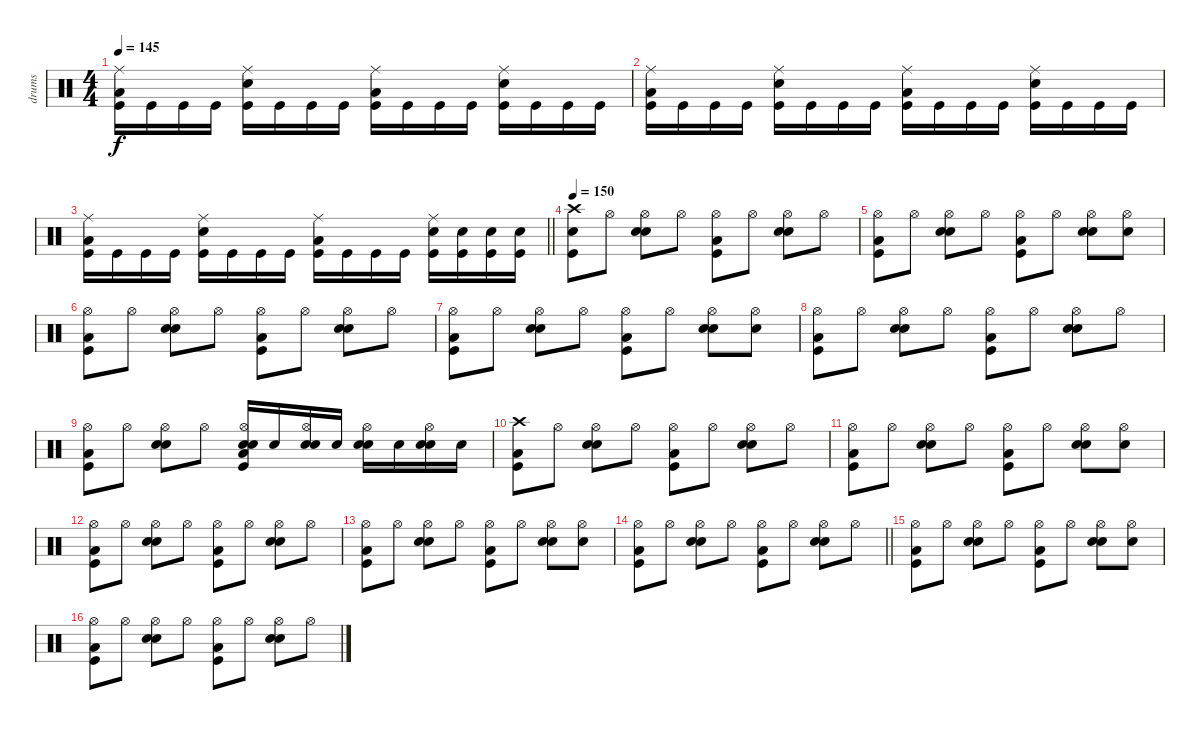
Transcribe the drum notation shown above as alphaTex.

\track ("drums" "drums") {instrument percussion}
\staff {score}
\articulation defaults
\ts (4 4)
\tempo 145
\clef neutral
\ks c
("Ride (middle)" "Low Tom (hit)" "Kick (hit)").16{dy f} "Kick (hit)".16 "Kick (hit)".16 "Kick (hit)".16 ("Ride (middle)" "Snare (hit) 2" "Kick (hit)").16 "Kick (hit)".16 "Kick (hit)".16 "Kick (hit)".16 ("Ride (middle)" "Low Tom (hit)" "Kick (hit)").16 "Kick (hit)".16 "Kick (hit)".16 "Kick (hit)".16 ("Ride (middle)" "Snare (hit) 2" "Kick (hit)").16 "Kick (hit)".16 "Kick (hit)".16 "Kick (hit)".16 |
("Ride (middle)" "Low Tom (hit)" "Kick (hit)").16 "Kick (hit)".16 "Kick (hit)".16 "Kick (hit)".16 ("Ride (middle)" "Snare (hit) 2" "Kick (hit)").16 "Kick (hit)".16 "Kick (hit)".16 "Kick (hit)".16 ("Ride (middle)" "Low Tom (hit)" "Kick (hit)").16 "Kick (hit)".16 "Kick (hit)".16 "Kick (hit)".16 ("Ride (middle)" "Snare (hit) 2" "Kick (hit)").16 "Kick (hit)".16 "Kick (hit)".16 "Kick (hit)".16 |
\barLineRight lightlight
("Ride (middle)" "Low Tom (hit)" "Kick (hit)").16 "Kick (hit)".16 "Kick (hit)".16 "Kick (hit)".16 ("Ride (middle)" "Snare (hit) 2" "Kick (hit)").16 "Kick (hit)".16 "Kick (hit)".16 "Kick (hit)".16 ("Ride (middle)" "Low Tom (hit)" "Kick (hit)").16 "Kick (hit)".16 "Kick (hit)".16 "Kick (hit)".16 ("Ride (middle)" "Snare (hit) 2" "Kick (hit)").16 ("Snare (hit) 2" "Kick (hit)").16 ("Snare (hit) 2" "Kick (hit)").16 ("Snare (hit) 2" "Kick (hit)").16 |
\section ("" "")
\tempo 150
("Crash high (hit)" "Snare (hit) 2" "Kick (hit)").8{volume 6} "Hi-Hat (open)".8 ("Hi-Hat (open)" "Electric Snare (hit)" "Snare (hit) 2").8 "Hi-Hat (open)".8 ("Hi-Hat (open)" "Low Floor Tom (hit)" "Kick (hit)").8 "Hi-Hat (open)".8 ("Hi-Hat (open)" "Electric Snare (hit)" "Snare (hit) 2").8 "Hi-Hat (open)".8 |
("Hi-Hat (open)" "Low Floor Tom (hit)" "Kick (hit)").8 "Hi-Hat (open)".8 ("Hi-Hat (open)" "Electric Snare (hit)" "Snare (hit) 2").8 "Hi-Hat (open)".8 ("Hi-Hat (open)" "Low Floor Tom (hit)" "Kick (hit)").8 "Hi-Hat (open)".8 ("Hi-Hat (open)" "Electric Snare (hit)" "Snare (hit) 2").8 ("Hi-Hat (open)" "Electric Snare (hit)").8 |
("Hi-Hat (open)" "Low Floor Tom (hit)" "Kick (hit)").8 "Hi-Hat (open)".8 ("Hi-Hat (open)" "Electric Snare (hit)" "Snare (hit) 2").8 "Hi-Hat (open)".8 ("Hi-Hat (open)" "Low Floor Tom (hit)" "Kick (hit)").8 "Hi-Hat (open)".8 ("Hi-Hat (open)" "Electric Snare (hit)" "Snare (hit) 2").8 "Hi-Hat (open)".8 |
("Hi-Hat (open)" "Low Floor Tom (hit)" "Kick (hit)").8 "Hi-Hat (open)".8 ("Hi-Hat (open)" "Electric Snare (hit)" "Snare (hit) 2").8 "Hi-Hat (open)".8 ("Hi-Hat (open)" "Low Floor Tom (hit)" "Kick (hit)").8 "Hi-Hat (open)".8 ("Hi-Hat (open)" "Electric Snare (hit)" "Snare (hit) 2").8 ("Hi-Hat (open)" "Electric Snare (hit)").8 |
("Hi-Hat (open)" "Low Floor Tom (hit)" "Kick (hit)").8 "Hi-Hat (open)".8 ("Hi-Hat (open)" "Electric Snare (hit)" "Snare (hit) 2").8 "Hi-Hat (open)".8 ("Hi-Hat (open)" "Low Floor Tom (hit)" "Kick (hit)").8 "Hi-Hat (open)".8 ("Hi-Hat (open)" "Electric Snare (hit)" "Snare (hit) 2").8 "Hi-Hat (open)".8 |
("Hi-Hat (open)" "Low Floor Tom (hit)" "Kick (hit)").8 "Hi-Hat (open)".8 ("Hi-Hat (open)" "Electric Snare (hit)" "Snare (hit) 2").8 "Hi-Hat (open)".8 ("Hi-Hat (open)" "Electric Snare (hit)" "Snare (hit) 2" "Low Floor Tom (hit)" "Kick (hit)").16 "Snare (hit) 2".16 ("Hi-Hat (open)" "Electric Snare (hit)" "Snare (hit) 2").16 "Snare (hit) 2".16 ("Hi-Hat (open)" "Electric Snare (hit)" "Snare (hit) 2").16 "Snare (hit) 2".16 ("Hi-Hat (open)" "Electric Snare (hit)" "Snare (hit) 2").16 "Snare (hit) 2".16 |
("Crash high (hit)" "Low Floor Tom (hit)" "Kick (hit)").8 "Hi-Hat (open)".8 ("Hi-Hat (open)" "Electric Snare (hit)" "Snare (hit) 2").8 "Hi-Hat (open)".8 ("Hi-Hat (open)" "Low Floor Tom (hit)" "Kick (hit)").8 "Hi-Hat (open)".8 ("Hi-Hat (open)" "Electric Snare (hit)" "Snare (hit) 2").8 "Hi-Hat (open)".8 |
("Hi-Hat (open)" "Low Floor Tom (hit)" "Kick (hit)").8 "Hi-Hat (open)".8 ("Hi-Hat (open)" "Electric Snare (hit)" "Snare (hit) 2").8 "Hi-Hat (open)".8 ("Hi-Hat (open)" "Low Floor Tom (hit)" "Kick (hit)").8 "Hi-Hat (open)".8 ("Hi-Hat (open)" "Electric Snare (hit)" "Snare (hit) 2").8 ("Hi-Hat (open)" "Electric Snare (hit)").8 |
("Hi-Hat (open)" "Low Floor Tom (hit)" "Kick (hit)").8 "Hi-Hat (open)".8 ("Hi-Hat (open)" "Electric Snare (hit)" "Snare (hit) 2").8 "Hi-Hat (open)".8 ("Hi-Hat (open)" "Low Floor Tom (hit)" "Kick (hit)").8 "Hi-Hat (open)".8 ("Hi-Hat (open)" "Electric Snare (hit)" "Snare (hit) 2").8 "Hi-Hat (open)".8 |
("Hi-Hat (open)" "Low Floor Tom (hit)" "Kick (hit)").8{volume 3} "Hi-Hat (open)".8 ("Hi-Hat (open)" "Electric Snare (hit)" "Snare (hit) 2").8 "Hi-Hat (open)".8 ("Hi-Hat (open)" "Low Floor Tom (hit)" "Kick (hit)").8 "Hi-Hat (open)".8 ("Hi-Hat (open)" "Electric Snare (hit)" "Snare (hit) 2").8 ("Hi-Hat (open)" "Electric Snare (hit)").8 |
\barLineRight lightlight
("Hi-Hat (open)" "Low Floor Tom (hit)" "Kick (hit)").8 "Hi-Hat (open)".8 ("Hi-Hat (open)" "Electric Snare (hit)" "Snare (hit) 2").8 "Hi-Hat (open)".8 ("Hi-Hat (open)" "Low Floor Tom (hit)" "Kick (hit)").8 "Hi-Hat (open)".8 ("Hi-Hat (open)" "Electric Snare (hit)" "Snare (hit) 2").8 "Hi-Hat (open)".8 |
("Hi-Hat (open)" "Low Floor Tom (hit)" "Kick (hit)").8 "Hi-Hat (open)".8 ("Hi-Hat (open)" "Electric Snare (hit)" "Snare (hit) 2").8 "Hi-Hat (open)".8 ("Hi-Hat (open)" "Low Floor Tom (hit)" "Kick (hit)").8 "Hi-Hat (open)".8 ("Hi-Hat (open)" "Electric Snare (hit)" "Snare (hit) 2").8 ("Hi-Hat (open)" "Electric Snare (hit)").8 |
("Hi-Hat (open)" "Low Floor Tom (hit)" "Kick (hit)").8 "Hi-Hat (open)".8 ("Hi-Hat (open)" "Electric Snare (hit)" "Snare (hit) 2").8 "Hi-Hat (open)".8 ("Hi-Hat (open)" "Low Floor Tom (hit)" "Kick (hit)").8 "Hi-Hat (open)".8 ("Hi-Hat (open)" "Electric Snare (hit)" "Snare (hit) 2").8 "Hi-Hat (open)".8
